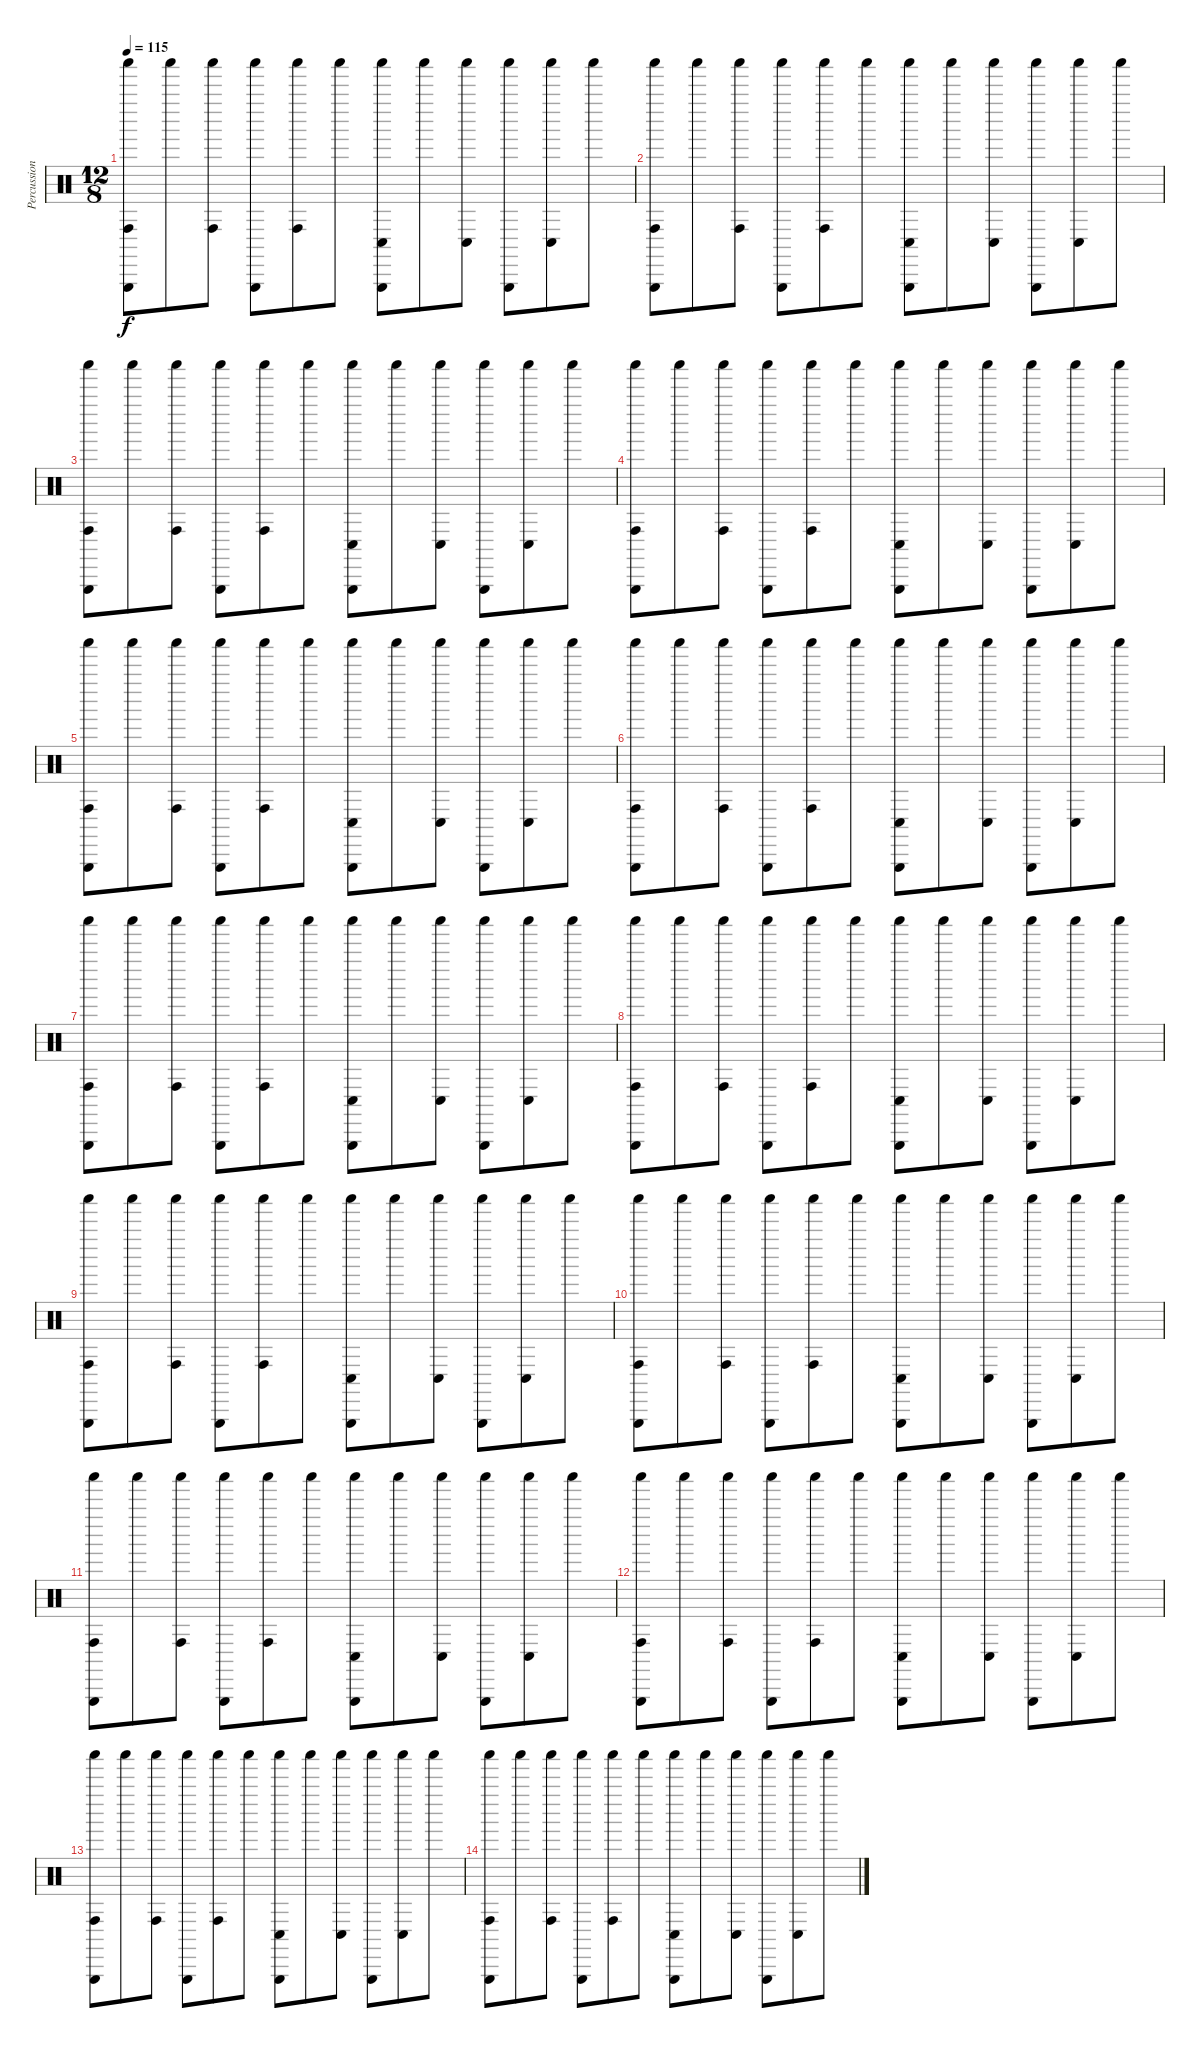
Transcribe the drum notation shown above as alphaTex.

\track ("Percussion" "Percussion") {instrument percussion}
\staff {score}
\articulation defaults
\ts (12 8)
\tempo 115
\clef neutral
\ks c
("Shaker (hit)" "Triangle (hit)" "Conga high (hit)").8{dy f} "Shaker (hit)".8 ("Shaker (hit)" "Conga high (hit)").8 ("Shaker (hit)" "Triangle (hit)").8 ("Shaker (hit)" "Conga high (hit)").8 "Shaker (hit)".8 ("Shaker (hit)" "Triangle (hit)" "Conga low (hit)").8 "Shaker (hit)".8 ("Shaker (hit)" "Conga low (hit)").8 ("Shaker (hit)" "Triangle (hit)").8 ("Shaker (hit)" "Conga low (hit)").8 "Shaker (hit)".8 |
("Shaker (hit)" "Triangle (hit)" "Conga high (hit)").8 "Shaker (hit)".8 ("Shaker (hit)" "Conga high (hit)").8 ("Shaker (hit)" "Triangle (hit)").8 ("Shaker (hit)" "Conga high (hit)").8 "Shaker (hit)".8 ("Shaker (hit)" "Triangle (hit)" "Conga low (hit)").8 "Shaker (hit)".8 ("Shaker (hit)" "Conga low (hit)").8 ("Shaker (hit)" "Triangle (hit)").8 ("Shaker (hit)" "Conga low (hit)").8 "Shaker (hit)".8 |
("Shaker (hit)" "Triangle (hit)" "Conga high (hit)").8 "Shaker (hit)".8 ("Shaker (hit)" "Conga high (hit)").8 ("Shaker (hit)" "Triangle (hit)").8 ("Shaker (hit)" "Conga high (hit)").8 "Shaker (hit)".8 ("Shaker (hit)" "Triangle (hit)" "Conga low (hit)").8 "Shaker (hit)".8 ("Shaker (hit)" "Conga low (hit)").8 ("Shaker (hit)" "Triangle (hit)").8 ("Shaker (hit)" "Conga low (hit)").8 "Shaker (hit)".8 |
("Shaker (hit)" "Triangle (hit)" "Conga high (hit)").8 "Shaker (hit)".8 ("Shaker (hit)" "Conga high (hit)").8 ("Shaker (hit)" "Triangle (hit)").8 ("Shaker (hit)" "Conga high (hit)").8 "Shaker (hit)".8 ("Shaker (hit)" "Triangle (hit)" "Conga low (hit)").8 "Shaker (hit)".8 ("Shaker (hit)" "Conga low (hit)").8 ("Shaker (hit)" "Triangle (hit)").8 ("Shaker (hit)" "Conga low (hit)").8 "Shaker (hit)".8 |
("Shaker (hit)" "Triangle (hit)" "Conga high (hit)").8 "Shaker (hit)".8 ("Shaker (hit)" "Conga high (hit)").8 ("Shaker (hit)" "Triangle (hit)").8 ("Shaker (hit)" "Conga high (hit)").8 "Shaker (hit)".8 ("Shaker (hit)" "Triangle (hit)" "Conga low (hit)").8 "Shaker (hit)".8 ("Shaker (hit)" "Conga low (hit)").8 ("Shaker (hit)" "Triangle (hit)").8 ("Shaker (hit)" "Conga low (hit)").8 "Shaker (hit)".8 |
("Shaker (hit)" "Triangle (hit)" "Conga high (hit)").8 "Shaker (hit)".8 ("Shaker (hit)" "Conga high (hit)").8 ("Shaker (hit)" "Triangle (hit)").8 ("Shaker (hit)" "Conga high (hit)").8 "Shaker (hit)".8 ("Shaker (hit)" "Triangle (hit)" "Conga low (hit)").8 "Shaker (hit)".8 ("Shaker (hit)" "Conga low (hit)").8 ("Shaker (hit)" "Triangle (hit)").8 ("Shaker (hit)" "Conga low (hit)").8 "Shaker (hit)".8 |
("Shaker (hit)" "Triangle (hit)" "Conga high (hit)").8 "Shaker (hit)".8 ("Shaker (hit)" "Conga high (hit)").8 ("Shaker (hit)" "Triangle (hit)").8 ("Shaker (hit)" "Conga high (hit)").8 "Shaker (hit)".8 ("Shaker (hit)" "Triangle (hit)" "Conga low (hit)").8 "Shaker (hit)".8 ("Shaker (hit)" "Conga low (hit)").8 ("Shaker (hit)" "Triangle (hit)").8 ("Shaker (hit)" "Conga low (hit)").8 "Shaker (hit)".8 |
("Shaker (hit)" "Triangle (hit)" "Conga high (hit)").8 "Shaker (hit)".8 ("Shaker (hit)" "Conga high (hit)").8 ("Shaker (hit)" "Triangle (hit)").8 ("Shaker (hit)" "Conga high (hit)").8 "Shaker (hit)".8 ("Shaker (hit)" "Triangle (hit)" "Conga low (hit)").8 "Shaker (hit)".8 ("Shaker (hit)" "Conga low (hit)").8 ("Shaker (hit)" "Triangle (hit)").8 ("Shaker (hit)" "Conga low (hit)").8 "Shaker (hit)".8 |
("Shaker (hit)" "Triangle (hit)" "Conga high (hit)").8 "Shaker (hit)".8 ("Shaker (hit)" "Conga high (hit)").8 ("Shaker (hit)" "Triangle (hit)").8 ("Shaker (hit)" "Conga high (hit)").8 "Shaker (hit)".8 ("Shaker (hit)" "Triangle (hit)" "Conga low (hit)").8 "Shaker (hit)".8 ("Shaker (hit)" "Conga low (hit)").8 ("Shaker (hit)" "Triangle (hit)").8 ("Shaker (hit)" "Conga low (hit)").8 "Shaker (hit)".8 |
("Shaker (hit)" "Triangle (hit)" "Conga high (hit)").8 "Shaker (hit)".8 ("Shaker (hit)" "Conga high (hit)").8 ("Shaker (hit)" "Triangle (hit)").8 ("Shaker (hit)" "Conga high (hit)").8 "Shaker (hit)".8 ("Shaker (hit)" "Triangle (hit)" "Conga low (hit)").8 "Shaker (hit)".8 ("Shaker (hit)" "Conga low (hit)").8 ("Shaker (hit)" "Triangle (hit)").8 ("Shaker (hit)" "Conga low (hit)").8 "Shaker (hit)".8 |
("Shaker (hit)" "Triangle (hit)" "Conga high (hit)").8 "Shaker (hit)".8 ("Shaker (hit)" "Conga high (hit)").8 ("Shaker (hit)" "Triangle (hit)").8 ("Shaker (hit)" "Conga high (hit)").8 "Shaker (hit)".8 ("Shaker (hit)" "Triangle (hit)" "Conga low (hit)").8 "Shaker (hit)".8 ("Shaker (hit)" "Conga low (hit)").8 ("Shaker (hit)" "Triangle (hit)").8 ("Shaker (hit)" "Conga low (hit)").8 "Shaker (hit)".8 |
("Shaker (hit)" "Triangle (hit)" "Conga high (hit)").8 "Shaker (hit)".8 ("Shaker (hit)" "Conga high (hit)").8 ("Shaker (hit)" "Triangle (hit)").8 ("Shaker (hit)" "Conga high (hit)").8 "Shaker (hit)".8 ("Shaker (hit)" "Triangle (hit)" "Conga low (hit)").8 "Shaker (hit)".8 ("Shaker (hit)" "Conga low (hit)").8 ("Shaker (hit)" "Triangle (hit)").8 ("Shaker (hit)" "Conga low (hit)").8 "Shaker (hit)".8 |
("Shaker (hit)" "Triangle (hit)" "Conga high (hit)").8 "Shaker (hit)".8 ("Shaker (hit)" "Conga high (hit)").8 ("Shaker (hit)" "Triangle (hit)").8 ("Shaker (hit)" "Conga high (hit)").8 "Shaker (hit)".8 ("Shaker (hit)" "Triangle (hit)" "Conga low (hit)").8 "Shaker (hit)".8 ("Shaker (hit)" "Conga low (hit)").8 ("Shaker (hit)" "Triangle (hit)").8 ("Shaker (hit)" "Conga low (hit)").8 "Shaker (hit)".8 |
("Shaker (hit)" "Triangle (hit)" "Conga high (hit)").8 "Shaker (hit)".8 ("Shaker (hit)" "Conga high (hit)").8 ("Shaker (hit)" "Triangle (hit)").8 ("Shaker (hit)" "Conga high (hit)").8 "Shaker (hit)".8 ("Shaker (hit)" "Triangle (hit)" "Conga low (hit)").8 "Shaker (hit)".8 ("Shaker (hit)" "Conga low (hit)").8 ("Shaker (hit)" "Triangle (hit)").8 ("Shaker (hit)" "Conga low (hit)").8 "Shaker (hit)".8
